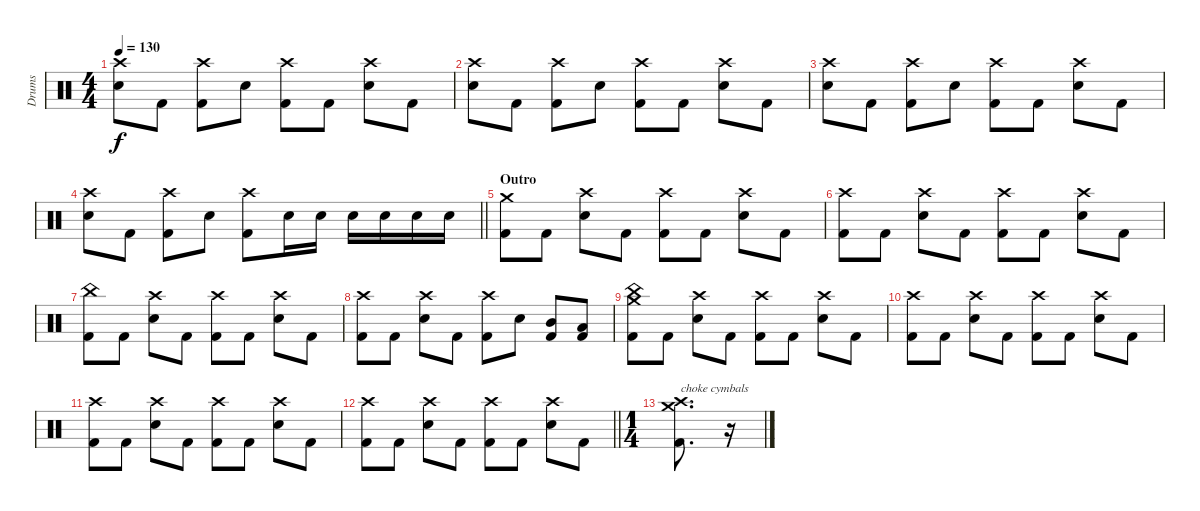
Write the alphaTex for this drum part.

\track ("Drums" "Drums") {instrument percussion}
\staff {score}
\articulation defaults
\ts (4 4)
\tempo 130
\clef neutral
\ks c
("Crash high (hit)" "Electric Snare (hit)").8{dy f} "Kick (hit) 2".8 ("Crash high (hit)" "Kick (hit) 2").8 "Electric Snare (hit)".8 ("Crash high (hit)" "Kick (hit) 2").8 "Kick (hit) 2".8 ("Crash high (hit)" "Electric Snare (hit)").8 "Kick (hit) 2".8 |
("Crash high (hit)" "Electric Snare (hit)").8 "Kick (hit) 2".8 ("Crash high (hit)" "Kick (hit) 2").8 "Electric Snare (hit)".8 ("Crash high (hit)" "Kick (hit) 2").8 "Kick (hit) 2".8 ("Crash high (hit)" "Electric Snare (hit)").8 "Kick (hit) 2".8 |
("Crash high (hit)" "Electric Snare (hit)").8 "Kick (hit) 2".8 ("Crash high (hit)" "Kick (hit) 2").8 "Electric Snare (hit)".8 ("Crash high (hit)" "Kick (hit) 2").8 "Kick (hit) 2".8 ("Crash high (hit)" "Electric Snare (hit)").8 "Kick (hit) 2".8 |
\barLineRight lightlight
("Crash high (hit)" "Electric Snare (hit)").8 "Kick (hit) 2".8 ("Crash high (hit)" "Kick (hit) 2").8 "Electric Snare (hit)".8 ("Crash high (hit)" "Kick (hit) 2").8 "Electric Snare (hit)".16 "Electric Snare (hit)".16 "Electric Snare (hit)".16 "Electric Snare (hit)".16 "Electric Snare (hit)".16 "Electric Snare (hit)".16 |
\section ("" "Outro")
("Crash medium (hit)" "Kick (hit) 2").8 "Kick (hit) 2".8 ("Crash high (hit)" "Electric Snare (hit)").8 "Kick (hit) 2".8 ("Crash high (hit)" "Kick (hit) 2").8 "Kick (hit) 2".8 ("Crash high (hit)" "Electric Snare (hit)").8 "Kick (hit) 2".8 |
("Crash high (hit)" "Kick (hit) 2").8 "Kick (hit) 2".8 ("Crash high (hit)" "Electric Snare (hit)").8 "Kick (hit) 2".8 ("Crash high (hit)" "Kick (hit) 2").8 "Kick (hit) 2".8 ("Crash high (hit)" "Electric Snare (hit)").8 "Kick (hit) 2".8 |
("China (hit)" "Kick (hit) 2").8 "Kick (hit) 2".8 ("Crash high (hit)" "Electric Snare (hit)").8 "Kick (hit) 2".8 ("Crash high (hit)" "Kick (hit) 2").8 "Kick (hit) 2".8 ("Crash high (hit)" "Electric Snare (hit)").8 "Kick (hit) 2".8 |
("Crash high (hit)" "Kick (hit) 2").8 "Kick (hit) 2".8 ("Crash high (hit)" "Electric Snare (hit)").8 "Kick (hit) 2".8 ("Crash high (hit)" "Kick (hit) 2").8 "Electric Snare (hit)".8 ("Mid Tom (hit)" "Kick (hit) 2").8 ("Low Tom (hit)" "Kick (hit) 2").8 |
("Crash medium (hit)" "China (hit)" "Kick (hit) 2").8 "Kick (hit) 2".8 ("Crash high (hit)" "Electric Snare (hit)").8 "Kick (hit) 2".8 ("Crash high (hit)" "Kick (hit) 2").8 "Kick (hit) 2".8 ("Crash high (hit)" "Electric Snare (hit)").8 "Kick (hit) 2".8 |
("Crash high (hit)" "Kick (hit) 2").8 "Kick (hit) 2".8 ("Crash high (hit)" "Electric Snare (hit)").8 "Kick (hit) 2".8 ("Crash high (hit)" "Kick (hit) 2").8 "Kick (hit) 2".8 ("Crash high (hit)" "Electric Snare (hit)").8 "Kick (hit) 2".8 |
("Crash high (hit)" "Kick (hit) 2").8 "Kick (hit) 2".8 ("Crash high (hit)" "Electric Snare (hit)").8 "Kick (hit) 2".8 ("Crash high (hit)" "Kick (hit) 2").8 "Kick (hit) 2".8 ("Crash high (hit)" "Electric Snare (hit)").8 "Kick (hit) 2".8 |
\barLineRight lightlight
("Crash high (hit)" "Kick (hit) 2").8 "Kick (hit) 2".8 ("Crash high (hit)" "Electric Snare (hit)").8 "Kick (hit) 2".8 ("Crash high (hit)" "Kick (hit) 2").8 "Kick (hit) 2".8 ("Crash high (hit)" "Electric Snare (hit)").8 "Kick (hit) 2".8 |
\ts (1 4)
("Crash high (hit)" "Crash medium (hit)" "Kick (hit) 2").8{d txt "choke cymbals"} r.16{volume 0}
